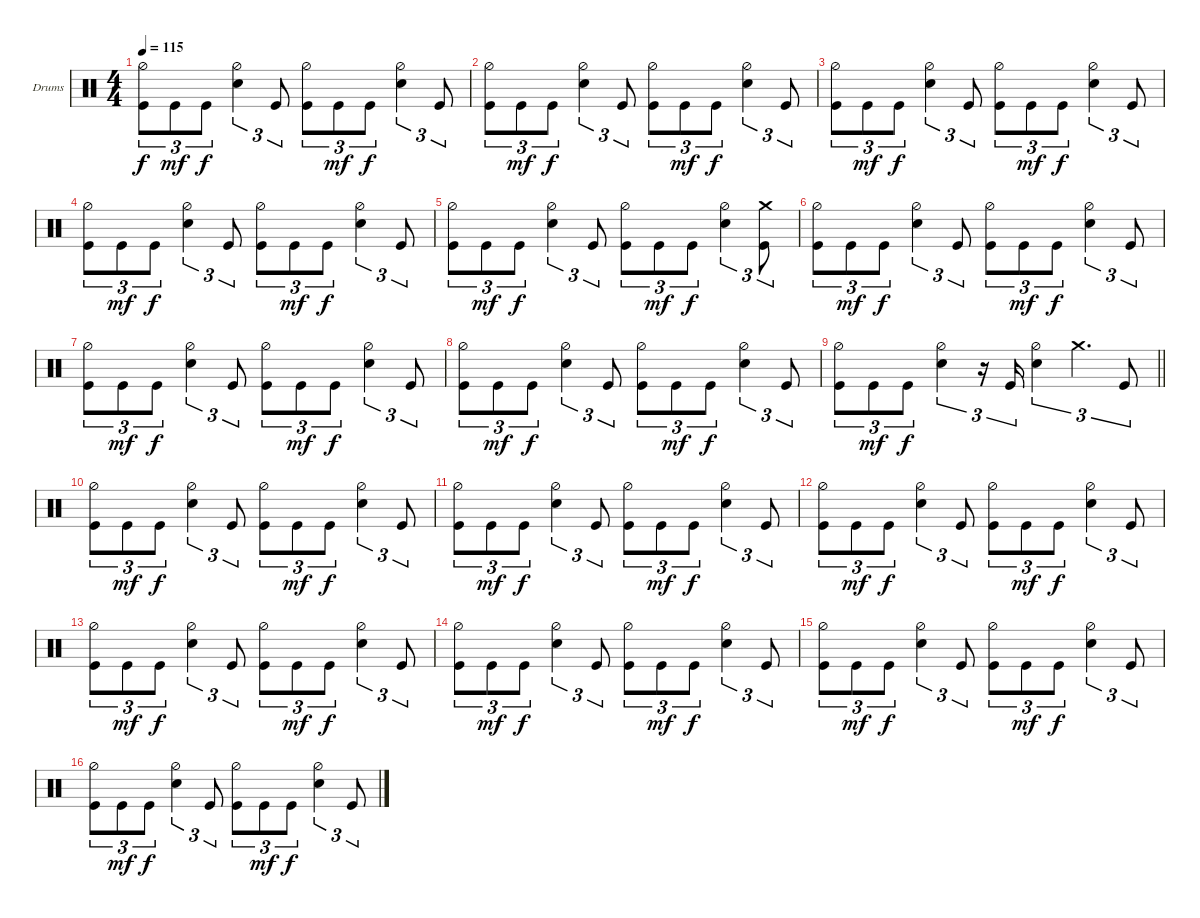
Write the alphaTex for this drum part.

\defaultSystemsLayout 4
\bracketExtendMode groupsimilarinstruments
\firstSystemTrackNameOrientation horizontal
\otherSystemsTrackNameOrientation horizontal
\track ("Drumkit" "Drums") {instrument percussion}
\staff {score}
\articulation defaults
\ts (4 4)
\tempo 115
\clef neutral
\ks aminor
("Kick (hit)" "Hi-Hat (half)").8{tu (3 2) dy f} "Kick (hit)".8{tu (3 2) dy mf} "Kick (hit)".8{tu (3 2) dy f} ("Snare (hit) 2" "Hi-Hat (half)").4{tu (3 2)} "Kick (hit)".8{tu (3 2)} ("Kick (hit)" "Hi-Hat (half)").8{tu (3 2)} "Kick (hit)".8{tu (3 2) dy mf} "Kick (hit)".8{tu (3 2) dy f} ("Snare (hit) 2" "Hi-Hat (half)").4{tu (3 2)} "Kick (hit)".8{tu (3 2)} |
("Kick (hit)" "Hi-Hat (half)").8{tu (3 2)} "Kick (hit)".8{tu (3 2) dy mf} "Kick (hit)".8{tu (3 2) dy f} ("Snare (hit) 2" "Hi-Hat (half)").4{tu (3 2)} "Kick (hit)".8{tu (3 2)} ("Kick (hit)" "Hi-Hat (half)").8{tu (3 2)} "Kick (hit)".8{tu (3 2) dy mf} "Kick (hit)".8{tu (3 2) dy f} ("Snare (hit) 2" "Hi-Hat (half)").4{tu (3 2)} "Kick (hit)".8{tu (3 2)} |
("Kick (hit)" "Hi-Hat (half)").8{tu (3 2)} "Kick (hit)".8{tu (3 2) dy mf} "Kick (hit)".8{tu (3 2) dy f} ("Snare (hit) 2" "Hi-Hat (half)").4{tu (3 2)} "Kick (hit)".8{tu (3 2)} ("Kick (hit)" "Hi-Hat (half)").8{tu (3 2)} "Kick (hit)".8{tu (3 2) dy mf} "Kick (hit)".8{tu (3 2) dy f} ("Snare (hit) 2" "Hi-Hat (half)").4{tu (3 2)} "Kick (hit)".8{tu (3 2)} |
("Kick (hit)" "Hi-Hat (half)").8{tu (3 2)} "Kick (hit)".8{tu (3 2) dy mf} "Kick (hit)".8{tu (3 2) dy f} ("Snare (hit) 2" "Hi-Hat (half)").4{tu (3 2)} "Kick (hit)".8{tu (3 2)} ("Kick (hit)" "Hi-Hat (half)").8{tu (3 2)} "Kick (hit)".8{tu (3 2) dy mf} "Kick (hit)".8{tu (3 2) dy f} ("Snare (hit) 2" "Hi-Hat (half)").4{tu (3 2)} "Kick (hit)".8{tu (3 2)} |
("Kick (hit)" "Hi-Hat (half)").8{tu (3 2)} "Kick (hit)".8{tu (3 2) dy mf} "Kick (hit)".8{tu (3 2) dy f} ("Snare (hit) 2" "Hi-Hat (half)").4{tu (3 2)} "Kick (hit)".8{tu (3 2)} ("Kick (hit)" "Hi-Hat (half)").8{tu (3 2)} "Kick (hit)".8{tu (3 2) dy mf} "Kick (hit)".8{tu (3 2) dy f} ("Snare (hit) 2" "Hi-Hat (half)").4{tu (3 2)} ("Kick (hit)" "Crash medium (hit)").8{tu (3 2)} |
("Kick (hit)" "Hi-Hat (half)").8{tu (3 2)} "Kick (hit)".8{tu (3 2) dy mf} "Kick (hit)".8{tu (3 2) dy f} ("Snare (hit) 2" "Hi-Hat (half)").4{tu (3 2)} "Kick (hit)".8{tu (3 2)} ("Kick (hit)" "Hi-Hat (half)").8{tu (3 2)} "Kick (hit)".8{tu (3 2) dy mf} "Kick (hit)".8{tu (3 2) dy f} ("Snare (hit) 2" "Hi-Hat (half)").4{tu (3 2)} "Kick (hit)".8{tu (3 2)} |
("Kick (hit)" "Hi-Hat (half)").8{tu (3 2)} "Kick (hit)".8{tu (3 2) dy mf} "Kick (hit)".8{tu (3 2) dy f} ("Snare (hit) 2" "Hi-Hat (half)").4{tu (3 2)} "Kick (hit)".8{tu (3 2)} ("Kick (hit)" "Hi-Hat (half)").8{tu (3 2)} "Kick (hit)".8{tu (3 2) dy mf} "Kick (hit)".8{tu (3 2) dy f} ("Snare (hit) 2" "Hi-Hat (half)").4{tu (3 2)} "Kick (hit)".8{tu (3 2)} |
("Kick (hit)" "Hi-Hat (half)").8{tu (3 2)} "Kick (hit)".8{tu (3 2) dy mf} "Kick (hit)".8{tu (3 2) dy f} ("Snare (hit) 2" "Hi-Hat (half)").4{tu (3 2)} "Kick (hit)".8{tu (3 2)} ("Kick (hit)" "Hi-Hat (half)").8{tu (3 2)} "Kick (hit)".8{tu (3 2) dy mf} "Kick (hit)".8{tu (3 2) dy f} ("Snare (hit) 2" "Hi-Hat (half)").4{tu (3 2)} "Kick (hit)".8{tu (3 2)} |
\barLineRight lightlight
("Kick (hit)" "Hi-Hat (half)").8{tu (3 2)} "Kick (hit)".8{tu (3 2) dy mf} "Kick (hit)".8{tu (3 2) dy f} ("Snare (hit) 2" "Hi-Hat (half)").4{tu (3 2)} r.16{tu (3 2)} "Kick (hit)".16{tu (3 2)} ("Snare (hit) 2" "Hi-Hat (half)").4{tu (3 2)} "Crash medium (hit)".4{d tu (3 2)} "Kick (hit)".8{tu (3 2)} |
("Kick (hit)" "Hi-Hat (half)").8{tu (3 2)} "Kick (hit)".8{tu (3 2) dy mf} "Kick (hit)".8{tu (3 2) dy f} ("Snare (hit) 2" "Hi-Hat (half)").4{tu (3 2)} "Kick (hit)".8{tu (3 2)} ("Kick (hit)" "Hi-Hat (half)").8{tu (3 2)} "Kick (hit)".8{tu (3 2) dy mf} "Kick (hit)".8{tu (3 2) dy f} ("Snare (hit) 2" "Hi-Hat (half)").4{tu (3 2)} "Kick (hit)".8{tu (3 2)} |
("Kick (hit)" "Hi-Hat (half)").8{tu (3 2)} "Kick (hit)".8{tu (3 2) dy mf} "Kick (hit)".8{tu (3 2) dy f} ("Snare (hit) 2" "Hi-Hat (half)").4{tu (3 2)} "Kick (hit)".8{tu (3 2)} ("Kick (hit)" "Hi-Hat (half)").8{tu (3 2)} "Kick (hit)".8{tu (3 2) dy mf} "Kick (hit)".8{tu (3 2) dy f} ("Snare (hit) 2" "Hi-Hat (half)").4{tu (3 2)} "Kick (hit)".8{tu (3 2)} |
("Kick (hit)" "Hi-Hat (half)").8{tu (3 2)} "Kick (hit)".8{tu (3 2) dy mf} "Kick (hit)".8{tu (3 2) dy f} ("Snare (hit) 2" "Hi-Hat (half)").4{tu (3 2)} "Kick (hit)".8{tu (3 2)} ("Kick (hit)" "Hi-Hat (half)").8{tu (3 2)} "Kick (hit)".8{tu (3 2) dy mf} "Kick (hit)".8{tu (3 2) dy f} ("Snare (hit) 2" "Hi-Hat (half)").4{tu (3 2)} "Kick (hit)".8{tu (3 2)} |
("Kick (hit)" "Hi-Hat (half)").8{tu (3 2)} "Kick (hit)".8{tu (3 2) dy mf} "Kick (hit)".8{tu (3 2) dy f} ("Snare (hit) 2" "Hi-Hat (half)").4{tu (3 2)} "Kick (hit)".8{tu (3 2)} ("Kick (hit)" "Hi-Hat (half)").8{tu (3 2)} "Kick (hit)".8{tu (3 2) dy mf} "Kick (hit)".8{tu (3 2) dy f} ("Snare (hit) 2" "Hi-Hat (half)").4{tu (3 2)} "Kick (hit)".8{tu (3 2)} |
("Kick (hit)" "Hi-Hat (half)").8{tu (3 2)} "Kick (hit)".8{tu (3 2) dy mf} "Kick (hit)".8{tu (3 2) dy f} ("Snare (hit) 2" "Hi-Hat (half)").4{tu (3 2)} "Kick (hit)".8{tu (3 2)} ("Kick (hit)" "Hi-Hat (half)").8{tu (3 2)} "Kick (hit)".8{tu (3 2) dy mf} "Kick (hit)".8{tu (3 2) dy f} ("Snare (hit) 2" "Hi-Hat (half)").4{tu (3 2)} "Kick (hit)".8{tu (3 2)} |
("Kick (hit)" "Hi-Hat (half)").8{tu (3 2)} "Kick (hit)".8{tu (3 2) dy mf} "Kick (hit)".8{tu (3 2) dy f} ("Snare (hit) 2" "Hi-Hat (half)").4{tu (3 2)} "Kick (hit)".8{tu (3 2)} ("Kick (hit)" "Hi-Hat (half)").8{tu (3 2)} "Kick (hit)".8{tu (3 2) dy mf} "Kick (hit)".8{tu (3 2) dy f} ("Snare (hit) 2" "Hi-Hat (half)").4{tu (3 2)} "Kick (hit)".8{tu (3 2)} |
("Kick (hit)" "Hi-Hat (half)").8{tu (3 2)} "Kick (hit)".8{tu (3 2) dy mf} "Kick (hit)".8{tu (3 2) dy f} ("Snare (hit) 2" "Hi-Hat (half)").4{tu (3 2)} "Kick (hit)".8{tu (3 2)} ("Kick (hit)" "Hi-Hat (half)").8{tu (3 2)} "Kick (hit)".8{tu (3 2) dy mf} "Kick (hit)".8{tu (3 2) dy f} ("Snare (hit) 2" "Hi-Hat (half)").4{tu (3 2)} "Kick (hit)".8{tu (3 2)}
